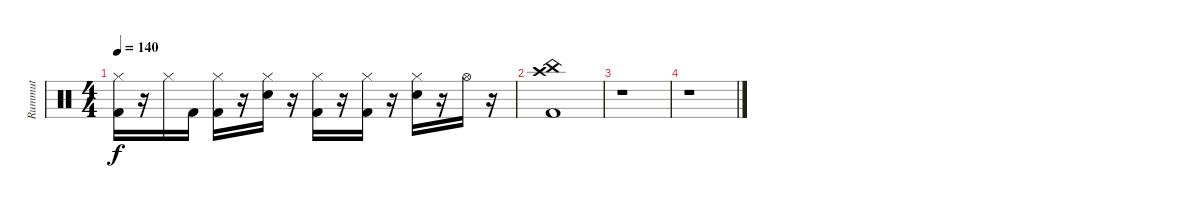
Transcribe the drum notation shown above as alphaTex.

\track ("Rummut" "Rummut") {instrument percussion}
\staff {score}
\articulation defaults
\ts (4 4)
\tempo 140
\clef neutral
\ks c
("Hi-Hat (closed)" "Kick (hit) 2").16{dy f} r.16 "Hi-Hat (closed)".16 "Kick (hit) 2".16 ("Hi-Hat (closed)" "Kick (hit) 2").16 r.16 ("Hi-Hat (closed)" "Snare (hit) 2").16 r.16 ("Hi-Hat (closed)" "Kick (hit) 2").16 r.16 ("Hi-Hat (closed)" "Kick (hit) 2").16 r.16 ("Hi-Hat (closed)" "Snare (hit) 2").16 r.16 "Hi-Hat (open)".16 r.16 |
("Crash high (hit)" "China (hit)" "Kick (hit) 2").1 |
r.1 |
r.1
